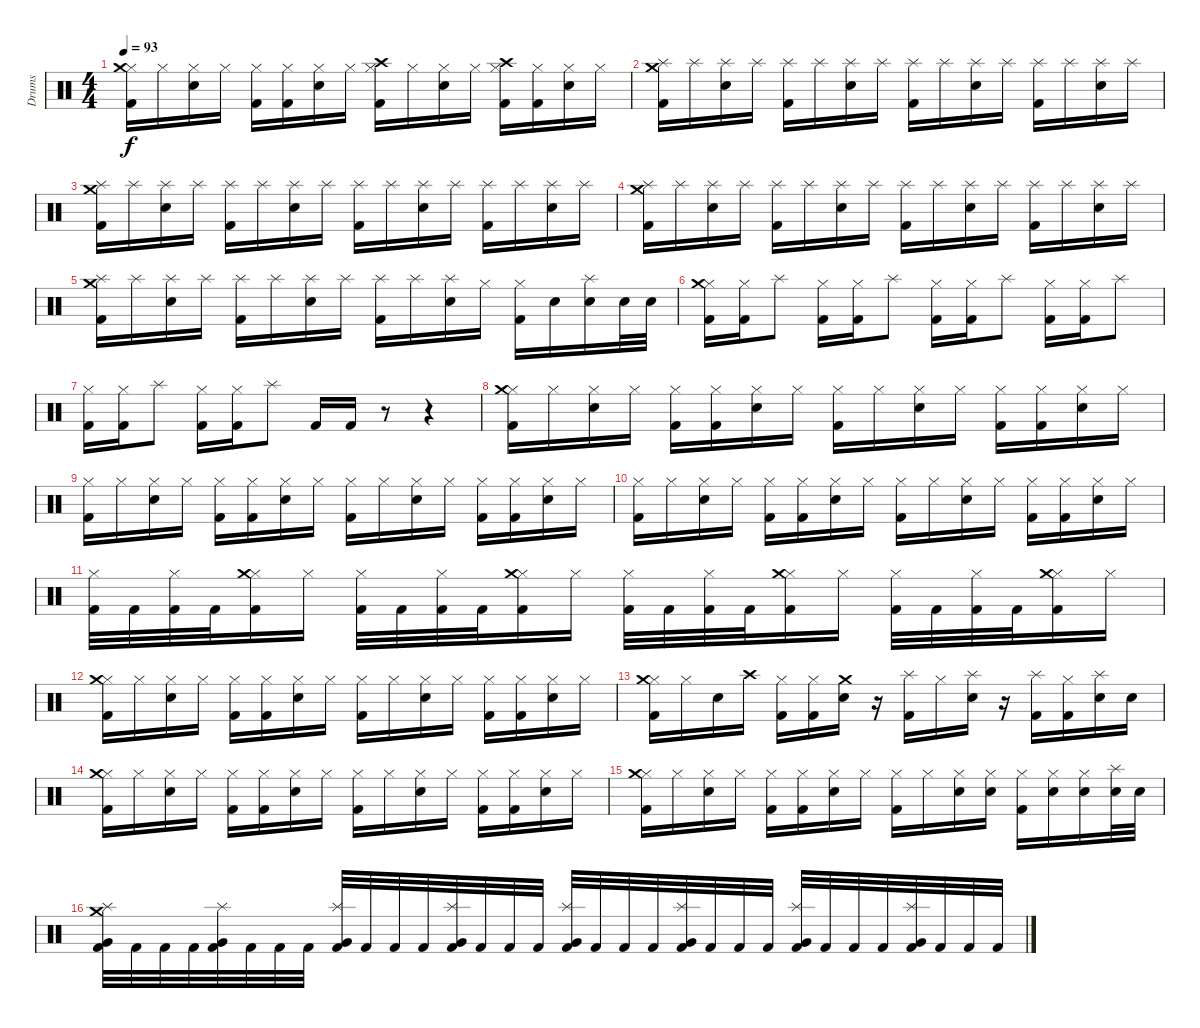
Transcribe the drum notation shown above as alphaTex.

\track ("Drums" "Drums") {instrument percussion}
\staff {score}
\articulation defaults
\ts (4 4)
\tempo 93
\clef neutral
\ks c
("Hi-Hat (closed)" "Crash medium (hit)" "Kick (hit) 2").16{dy f} "Hi-Hat (closed)".16 ("Hi-Hat (closed)" "Snare (hit) 2").16 "Hi-Hat (closed)".16 ("Hi-Hat (closed)" "Kick (hit) 2").16 ("Hi-Hat (closed)" "Kick (hit) 2").16 ("Hi-Hat (closed)" "Snare (hit) 2").16 "Hi-Hat (closed)".16 ("Hi-Hat (closed)" "Crash high (hit)" "Kick (hit) 2").16 "Hi-Hat (closed)".16 ("Hi-Hat (closed)" "Snare (hit) 2").16 "Hi-Hat (closed)".16 ("Hi-Hat (closed)" "Crash high (hit)" "Kick (hit) 2").16 ("Hi-Hat (closed)" "Kick (hit) 2").16 ("Hi-Hat (closed)" "Snare (hit) 2").16 "Hi-Hat (closed)".16 |
("Splash (hit)" "Crash medium (hit)" "Kick (hit) 2").16 "Splash (hit)".16 ("Splash (hit)" "Snare (hit) 2").16 "Splash (hit)".16 ("Splash (hit)" "Kick (hit) 2").16 "Splash (hit)".16 ("Splash (hit)" "Snare (hit) 2").16 "Splash (hit)".16 ("Splash (hit)" "Kick (hit) 2").16 "Splash (hit)".16 ("Splash (hit)" "Snare (hit) 2").16 "Splash (hit)".16 ("Splash (hit)" "Kick (hit) 2").16 "Splash (hit)".16 ("Splash (hit)" "Snare (hit) 2").16 "Splash (hit)".16 |
("Splash (hit)" "Crash medium (hit)" "Kick (hit) 2").16 "Splash (hit)".16 ("Splash (hit)" "Snare (hit) 2").16 "Splash (hit)".16 ("Splash (hit)" "Kick (hit) 2").16 "Splash (hit)".16 ("Splash (hit)" "Snare (hit) 2").16 "Splash (hit)".16 ("Splash (hit)" "Kick (hit) 2").16 "Splash (hit)".16 ("Splash (hit)" "Snare (hit) 2").16 "Splash (hit)".16 ("Splash (hit)" "Kick (hit) 2").16 "Splash (hit)".16 ("Splash (hit)" "Snare (hit) 2").16 "Splash (hit)".16 |
("Splash (hit)" "Crash medium (hit)" "Kick (hit) 2").16 "Splash (hit)".16 ("Splash (hit)" "Snare (hit) 2").16 "Splash (hit)".16 ("Splash (hit)" "Kick (hit) 2").16 "Splash (hit)".16 ("Splash (hit)" "Snare (hit) 2").16 "Splash (hit)".16 ("Splash (hit)" "Kick (hit) 2").16 "Splash (hit)".16 ("Splash (hit)" "Snare (hit) 2").16 "Splash (hit)".16 ("Splash (hit)" "Kick (hit) 2").16 "Splash (hit)".16 ("Splash (hit)" "Snare (hit) 2").16 "Splash (hit)".16 |
("Splash (hit)" "Crash medium (hit)" "Kick (hit) 2").16 "Splash (hit)".16 ("Splash (hit)" "Snare (hit) 2").16 "Splash (hit)".16 ("Splash (hit)" "Kick (hit) 2").16 "Splash (hit)".16 ("Splash (hit)" "Snare (hit) 2").16 "Splash (hit)".16 ("Splash (hit)" "Kick (hit) 2").16 "Splash (hit)".16 ("Splash (hit)" "Snare (hit) 2").16 "Hi-Hat (closed)".16 ("Hi-Hat (closed)" "Kick (hit) 2").16 "Snare (hit) 2".16 ("Splash (hit)" "Snare (hit) 2").16 "Snare (hit) 2".32 "Snare (hit) 2".32 |
("Hi-Hat (closed)" "Crash medium (hit)" "Kick (hit) 2").16 ("Hi-Hat (closed)" "Kick (hit) 2").16 "Splash (hit)".8 ("Hi-Hat (closed)" "Kick (hit) 2").16 ("Hi-Hat (closed)" "Kick (hit) 2").16 "Splash (hit)".8 ("Hi-Hat (closed)" "Kick (hit) 2").16 ("Hi-Hat (closed)" "Kick (hit) 2").16 "Splash (hit)".8 ("Hi-Hat (closed)" "Kick (hit) 2").16 ("Hi-Hat (closed)" "Kick (hit) 2").16 "Splash (hit)".8 |
("Hi-Hat (closed)" "Kick (hit) 2").16 ("Hi-Hat (closed)" "Kick (hit) 2").16 "Splash (hit)".8 ("Hi-Hat (closed)" "Kick (hit) 2").16 ("Hi-Hat (closed)" "Kick (hit) 2").16 "Splash (hit)".8 "Kick (hit) 2".16 "Kick (hit) 2".16 r.8 r.4 |
("Hi-Hat (closed)" "Crash medium (hit)" "Kick (hit) 2").16 "Hi-Hat (closed)".16 ("Hi-Hat (closed)" "Snare (hit) 2").16 "Hi-Hat (closed)".16 ("Hi-Hat (closed)" "Kick (hit) 2").16 ("Hi-Hat (closed)" "Kick (hit) 2").16 ("Hi-Hat (closed)" "Snare (hit) 2").16 "Hi-Hat (closed)".16 ("Hi-Hat (closed)" "Kick (hit) 2").16 "Hi-Hat (closed)".16 ("Hi-Hat (closed)" "Snare (hit) 2").16 "Hi-Hat (closed)".16 ("Hi-Hat (closed)" "Kick (hit) 2").16 ("Hi-Hat (closed)" "Kick (hit) 2").16 ("Hi-Hat (closed)" "Snare (hit) 2").16 "Hi-Hat (closed)".16 |
("Hi-Hat (closed)" "Kick (hit) 2").16 "Hi-Hat (closed)".16 ("Hi-Hat (closed)" "Snare (hit) 2").16 "Hi-Hat (closed)".16 ("Hi-Hat (closed)" "Kick (hit) 2").16 ("Hi-Hat (closed)" "Kick (hit) 2").16 ("Hi-Hat (closed)" "Snare (hit) 2").16 "Hi-Hat (closed)".16 ("Hi-Hat (closed)" "Kick (hit) 2").16 "Hi-Hat (closed)".16 ("Hi-Hat (closed)" "Snare (hit) 2").16 "Hi-Hat (closed)".16 ("Hi-Hat (closed)" "Kick (hit) 2").16 ("Hi-Hat (closed)" "Kick (hit) 2").16 ("Hi-Hat (closed)" "Snare (hit) 2").16 "Hi-Hat (closed)".16 |
("Hi-Hat (closed)" "Kick (hit) 2").16 "Hi-Hat (closed)".16 ("Hi-Hat (closed)" "Snare (hit) 2").16 "Hi-Hat (closed)".16 ("Hi-Hat (closed)" "Kick (hit) 2").16 ("Hi-Hat (closed)" "Kick (hit) 2").16 ("Hi-Hat (closed)" "Snare (hit) 2").16 "Hi-Hat (closed)".16 ("Hi-Hat (closed)" "Kick (hit) 2").16 "Hi-Hat (closed)".16 ("Hi-Hat (closed)" "Snare (hit) 2").16 "Hi-Hat (closed)".16 ("Hi-Hat (closed)" "Kick (hit) 2").16 ("Hi-Hat (closed)" "Kick (hit) 2").16 ("Hi-Hat (closed)" "Snare (hit) 2").16 "Hi-Hat (closed)".16 |
("Hi-Hat (closed)" "Kick (hit) 2").32 "Kick (hit) 2".32 ("Hi-Hat (closed)" "Kick (hit) 2").32 "Kick (hit) 2".32 ("Hi-Hat (closed)" "Crash medium (hit)" "Kick (hit) 2").16 "Hi-Hat (closed)".16 ("Hi-Hat (closed)" "Kick (hit) 2").32 "Kick (hit) 2".32 ("Hi-Hat (closed)" "Kick (hit) 2").32 "Kick (hit) 2".32 ("Hi-Hat (closed)" "Crash medium (hit)" "Kick (hit) 2").16 "Hi-Hat (closed)".16 ("Hi-Hat (closed)" "Kick (hit) 2").32 "Kick (hit) 2".32 ("Hi-Hat (closed)" "Kick (hit) 2").32 "Kick (hit) 2".32 ("Hi-Hat (closed)" "Crash medium (hit)" "Kick (hit) 2").16 "Hi-Hat (closed)".16 ("Hi-Hat (closed)" "Kick (hit) 2").32 "Kick (hit) 2".32 ("Hi-Hat (closed)" "Kick (hit) 2").32 "Kick (hit) 2".32 ("Hi-Hat (closed)" "Crash medium (hit)" "Kick (hit) 2").16 "Hi-Hat (closed)".16 |
("Hi-Hat (closed)" "Crash medium (hit)" "Kick (hit) 2").16 "Hi-Hat (closed)".16 ("Hi-Hat (closed)" "Snare (hit) 2").16 "Hi-Hat (closed)".16 ("Hi-Hat (closed)" "Kick (hit) 2").16 ("Hi-Hat (closed)" "Kick (hit) 2").16 ("Hi-Hat (closed)" "Snare (hit) 2").16 "Hi-Hat (closed)".16 ("Hi-Hat (closed)" "Kick (hit) 2").16 "Hi-Hat (closed)".16 ("Hi-Hat (closed)" "Snare (hit) 2").16 "Hi-Hat (closed)".16 ("Hi-Hat (closed)" "Kick (hit) 2").16 ("Hi-Hat (closed)" "Kick (hit) 2").16 ("Hi-Hat (closed)" "Snare (hit) 2").16 "Hi-Hat (closed)".16 |
("Hi-Hat (closed)" "Crash medium (hit)" "Kick (hit) 2").16 "Hi-Hat (closed)".16 "Snare (hit) 2".16 "Crash high (hit)".16 ("Hi-Hat (closed)" "Kick (hit) 2").16 ("Hi-Hat (closed)" "Kick (hit) 2").16 ("Crash medium (hit)" "Snare (hit) 2").16 r.16 ("Splash (hit)" "Kick (hit) 2").16 "Hi-Hat (closed)".16 ("Splash (hit)" "Snare (hit) 2").16 r.16 ("Splash (hit)" "Kick (hit) 2").16 ("Hi-Hat (closed)" "Kick (hit) 2").16 ("Splash (hit)" "Snare (hit) 2").16 "Snare (hit) 2".16 |
("Hi-Hat (closed)" "Crash medium (hit)" "Kick (hit) 2").16 "Hi-Hat (closed)".16 ("Hi-Hat (closed)" "Snare (hit) 2").16 "Hi-Hat (closed)".16 ("Hi-Hat (closed)" "Kick (hit) 2").16 ("Hi-Hat (closed)" "Kick (hit) 2").16 ("Hi-Hat (closed)" "Snare (hit) 2").16 "Hi-Hat (closed)".16 ("Hi-Hat (closed)" "Kick (hit) 2").16 "Hi-Hat (closed)".16 ("Hi-Hat (closed)" "Snare (hit) 2").16 "Hi-Hat (closed)".16 ("Hi-Hat (closed)" "Kick (hit) 2").16 ("Hi-Hat (closed)" "Kick (hit) 2").16 ("Hi-Hat (closed)" "Snare (hit) 2").16 "Hi-Hat (closed)".16 |
("Hi-Hat (closed)" "Crash medium (hit)" "Kick (hit) 2").16 "Hi-Hat (closed)".16 ("Hi-Hat (closed)" "Snare (hit) 2").16 "Hi-Hat (closed)".16 ("Hi-Hat (closed)" "Kick (hit) 2").16 ("Hi-Hat (closed)" "Kick (hit) 2").16 ("Hi-Hat (closed)" "Snare (hit) 2").16 "Hi-Hat (closed)".16 ("Hi-Hat (closed)" "Kick (hit) 2").16 "Hi-Hat (closed)".16 ("Hi-Hat (closed)" "Snare (hit) 2").16 ("Hi-Hat (closed)" "Snare (hit) 2").16 ("Hi-Hat (closed)" "Kick (hit) 2").16 ("Hi-Hat (closed)" "Snare (hit) 2").16 ("Hi-Hat (closed)" "Snare (hit) 2").16 ("Splash (hit)" "Snare (hit) 2").32 "Snare (hit) 2".32 |
("Splash (hit)" "Crash medium (hit)" "Very Low Tom (hit)" "Kick (hit) 2").32 "Kick (hit) 2".32 "Kick (hit) 2".32 "Kick (hit) 2".32 ("Splash (hit)" "Very Low Tom (hit)" "Kick (hit) 2").32 "Kick (hit) 2".32 "Kick (hit) 2".32 "Kick (hit) 2".32 ("Splash (hit)" "Very Low Tom (hit)" "Kick (hit) 2").32 "Kick (hit) 2".32 "Kick (hit) 2".32 "Kick (hit) 2".32 ("Splash (hit)" "Very Low Tom (hit)" "Kick (hit) 2").32 "Kick (hit) 2".32 "Kick (hit) 2".32 "Kick (hit) 2".32 ("Splash (hit)" "Very Low Tom (hit)" "Kick (hit) 2").32 "Kick (hit) 2".32 "Kick (hit) 2".32 "Kick (hit) 2".32 ("Splash (hit)" "Very Low Tom (hit)" "Kick (hit) 2").32 "Kick (hit) 2".32 "Kick (hit) 2".32 "Kick (hit) 2".32 ("Splash (hit)" "Very Low Tom (hit)" "Kick (hit) 2").32 "Kick (hit) 2".32 "Kick (hit) 2".32 "Kick (hit) 2".32 ("Splash (hit)" "Very Low Tom (hit)" "Kick (hit) 2").32 "Kick (hit) 2".32 "Kick (hit) 2".32 "Kick (hit) 2".32
